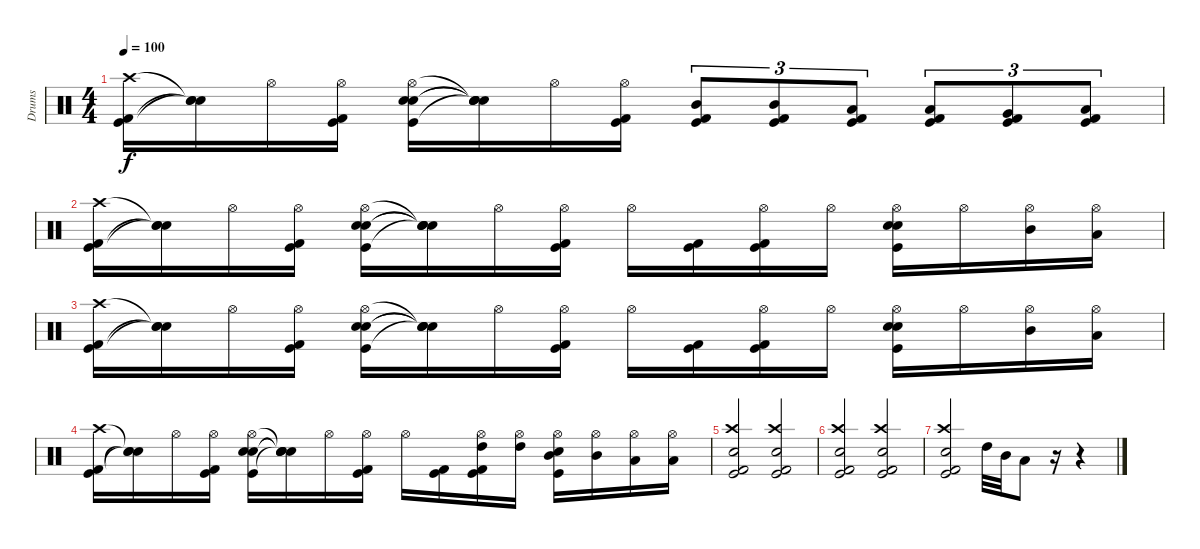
\track ("Drums" "Drums") {instrument percussion}
\staff {score}
\articulation defaults
\ts (4 4)
\tempo 100
\clef neutral
\ks c
("Kick (hit) 2" "Kick (hit)" "Crash high (hit)").16{dy f} ("Snare (hit)"{t} "Snare (hit)"{t} "Snare (hit)"{t}).16 "Hi-Hat (open)".16 ("Kick (hit)" "Kick (hit) 2" "Hi-Hat (open)").16 ("Snare (hit) 2" "Kick (hit)" "Electric Snare (hit)" "Hi-Hat (open)").16 ("Snare (hit)"{t} "Snare (hit)"{t} "Snare (hit)"{t} "Snare (hit)"{t}).16 "Hi-Hat (open)".16 ("Kick (hit)" "Kick (hit) 2" "Hi-Hat (open)").16 ("Mid Tom (hit)" "Kick (hit)" "Kick (hit) 2").8{tu (3 2)} ("Mid Tom (hit)" "Kick (hit)" "Kick (hit) 2").8{tu (3 2)} ("Low Tom (hit)" "Kick (hit)" "Kick (hit) 2").8{tu (3 2)} ("Low Tom (hit)" "Kick (hit)" "Kick (hit) 2").8{tu (3 2)} ("Very Low Tom (hit)" "Kick (hit)" "Kick (hit) 2").8{tu (3 2)} ("Low Floor Tom (hit)" "Kick (hit)" "Kick (hit) 2").8{tu (3 2)} |
("Kick (hit) 2" "Kick (hit)" "Crash high (hit)").16 ("Snare (hit)"{t} "Snare (hit)"{t} "Snare (hit)"{t}).16 "Hi-Hat (open)".16 ("Kick (hit)" "Kick (hit) 2" "Hi-Hat (open)").16 ("Snare (hit) 2" "Kick (hit)" "Electric Snare (hit)" "Hi-Hat (open)").16 ("Snare (hit)"{t} "Snare (hit)"{t} "Snare (hit)"{t} "Snare (hit)"{t}).16 "Hi-Hat (open)".16 ("Kick (hit)" "Kick (hit) 2" "Hi-Hat (open)").16 "Hi-Hat (open)".16 ("Kick (hit)" "Kick (hit) 2").16 ("Kick (hit)" "Kick (hit) 2" "Hi-Hat (open)").16 "Hi-Hat (open)".16 ("Snare (hit) 2" "Kick (hit)" "Electric Snare (hit)" "Hi-Hat (open)").16 "Hi-Hat (open)".16 ("Mid Tom (hit)" "Hi-Hat (open)").16 ("Low Tom (hit)" "Hi-Hat (open)").16 |
("Kick (hit) 2" "Kick (hit)" "Crash high (hit)").16 ("Snare (hit)"{t} "Snare (hit)"{t} "Snare (hit)"{t}).16 "Hi-Hat (open)".16 ("Kick (hit)" "Kick (hit) 2" "Hi-Hat (open)").16 ("Snare (hit) 2" "Kick (hit)" "Electric Snare (hit)" "Hi-Hat (open)").16 ("Snare (hit)"{t} "Snare (hit)"{t} "Snare (hit)"{t} "Snare (hit)"{t}).16 "Hi-Hat (open)".16 ("Kick (hit)" "Kick (hit) 2" "Hi-Hat (open)").16 "Hi-Hat (open)".16 ("Kick (hit)" "Kick (hit) 2").16 ("Kick (hit)" "Kick (hit) 2" "Hi-Hat (open)").16 "Hi-Hat (open)".16 ("Snare (hit) 2" "Kick (hit)" "Electric Snare (hit)" "Hi-Hat (open)").16 "Hi-Hat (open)".16 ("Mid Tom (hit)" "Hi-Hat (open)").16 ("Low Tom (hit)" "Hi-Hat (open)").16 |
("Kick (hit) 2" "Kick (hit)" "Crash high (hit)").16 ("Snare (hit)"{t} "Snare (hit)"{t} "Snare (hit)"{t}).16 "Hi-Hat (open)".16 ("Kick (hit)" "Kick (hit) 2" "Hi-Hat (open)").16 ("Snare (hit) 2" "Kick (hit)" "Electric Snare (hit)" "Hi-Hat (open)").16 ("Snare (hit)"{t} "Snare (hit)"{t} "Snare (hit)"{t} "Snare (hit)"{t}).16 "Hi-Hat (open)".16 ("Kick (hit)" "Kick (hit) 2" "Hi-Hat (open)").16 "Hi-Hat (open)".16 ("Kick (hit)" "Kick (hit) 2").16 ("High Tom (hit)" "Kick (hit)" "Kick (hit) 2" "Hi-Hat (open)").16 ("High Tom (hit)" "Hi-Hat (open)").16 ("Mid Tom (hit)" "Kick (hit)" "Electric Snare (hit)" "Hi-Hat (open)").16 ("Mid Tom (hit)" "Hi-Hat (open)").16 ("Low Tom (hit)" "Hi-Hat (open)").16 ("Low Floor Tom (hit)" "Hi-Hat (open)").16 |
("Kick (hit)" "Kick (hit) 2" "Snare (hit) 2" "Crash high (hit)").2 ("Kick (hit)" "Kick (hit) 2" "Snare (hit) 2" "Crash high (hit)").2 |
("Kick (hit)" "Kick (hit) 2" "Snare (hit) 2" "Crash high (hit)").2 ("Kick (hit)" "Kick (hit) 2" "Snare (hit) 2" "Crash high (hit)").2 |
("Kick (hit)" "Kick (hit) 2" "Snare (hit) 2" "Crash high (hit)").2 "High Tom (hit)".32 "Mid Tom (hit)".32 "Low Tom (hit)".8 r.16 r.4
